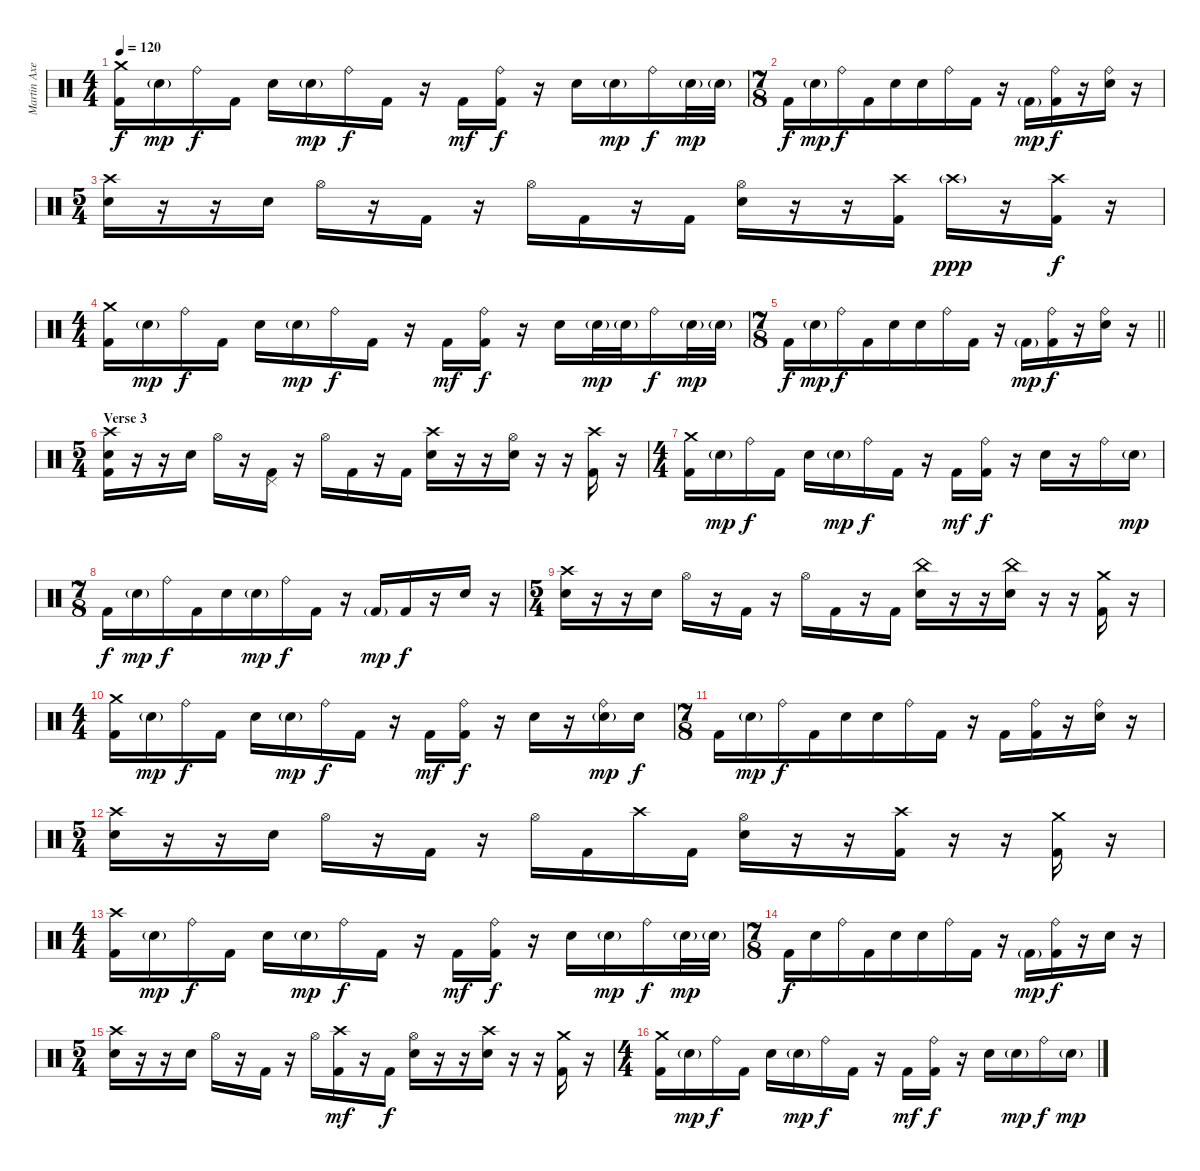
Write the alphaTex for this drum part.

\track ("Martin Axenrot - Drums" "Martin Axe") {instrument percussion}
\staff {score}
\articulation defaults
\ts (4 4)
\tempo 120
\clef neutral
\ks c
("Crash medium (hit)" "Kick (hit) 2").16{dy f} "Snare (hit) 2"{g}.16{dy mp} "Ride (bell)".16{dy f} "Kick (hit) 2".16 "Snare (hit) 2".16 "Snare (hit) 2"{g}.16{dy mp} "Ride (bell)".16{dy f} "Kick (hit) 2".16 r.16 "Kick (hit) 2".16{dy mf} ("Ride (bell)" "Kick (hit) 2").16{dy f} r.16 "Snare (hit) 2".16 "Snare (hit) 2"{g}.16{dy mp} "Ride (bell)".16{dy f} "Snare (hit) 2"{g}.32{dy mp} "Snare (hit) 2"{g}.32 |
\ts (7 8)
"Kick (hit) 2".16{dy f} "Snare (hit) 2"{g}.16{dy mp} "Ride (bell)".16{dy f} "Kick (hit) 2".16 "Snare (hit) 2".16 "Snare (hit) 2".16 "Ride (bell)".16 "Kick (hit) 2".16 r.16 "Kick (hit) 2"{g}.16{dy mp} ("Ride (bell)" "Kick (hit) 2").16{dy f} r.16 ("Ride (bell)" "Snare (hit) 2").16 r.16 |
\ts (5 4)
("Crash high (hit)" "Snare (hit) 2").16 r.16 r.16 "Snare (hit) 2".16 "Hi-Hat (open)".16 r.16 "Kick (hit) 2".16 r.16 "Hi-Hat (open)".16 "Kick (hit) 2".16 r.16 "Kick (hit) 2".16 ("Hi-Hat (open)" "Snare (hit) 2").16 r.16 r.16 ("Crash high (hit)" "Kick (hit) 2").16 "Crash high (hit)"{g}.16{dy ppp} r.16 ("Crash high (hit)" "Kick (hit) 2").16{dy f} r.16 |
\ts (4 4)
("Crash medium (hit)" "Kick (hit) 2").16 "Snare (hit) 2"{g}.16{dy mp} "Ride (bell)".16{dy f} "Kick (hit) 2".16 "Snare (hit) 2".16 "Snare (hit) 2"{g}.16{dy mp} "Ride (bell)".16{dy f} "Kick (hit) 2".16 r.16 "Kick (hit) 2".16{dy mf} ("Ride (bell)" "Kick (hit) 2").16{dy f} r.16 "Snare (hit) 2".16 "Snare (hit) 2"{g}.32{dy mp} "Snare (hit) 2"{g}.32 "Ride (bell)".16{dy f} "Snare (hit) 2"{g}.32{dy mp} "Snare (hit) 2"{g}.32 |
\ts (7 8)
\barLineRight lightlight "Kick (hit) 2".16{dy f} "Snare (hit) 2"{g}.16{dy mp} "Ride (bell)".16{dy f} "Kick (hit) 2".16 "Snare (hit) 2".16 "Snare (hit) 2".16 "Ride (bell)".16 "Kick (hit) 2".16
r.16 "Kick (hit) 2"{g}.16{dy mp} ("Ride (bell)" "Kick (hit) 2").16{dy f} r.16 ("Ride (bell)" "Snare (hit) 2").16 r.16 |
\ts (5 4)
\section ("" "Verse 3")
("Crash high (hit)" "Snare (hit) 2" "Kick (hit) 2").16 r.16 r.16 "Snare (hit) 2".16 "Hi-Hat (open)".16 r.16 ("Pedal Hi-Hat (hit)" "Kick (hit) 2").16 r.16 "Hi-Hat (open)".16 "Kick (hit) 2".16 r.16 "Kick (hit) 2".16 ("Crash high (hit)" "Snare (hit) 2").16 r.16 r.16 ("Hi-Hat (open)" "Snare (hit) 2").16 r.16 r.16 ("Crash high (hit)" "Kick (hit) 2").16 r.16 |
\ts (4 4)
("Crash medium (hit)" "Kick (hit) 2").16 "Snare (hit) 2"{g}.16{dy mp} "Ride (bell)".16{dy f} "Kick (hit) 2".16 "Snare (hit) 2".16 "Snare (hit) 2"{g}.16{dy mp} "Ride (bell)".16{dy f} "Kick (hit) 2".16 r.16 "Kick (hit) 2".16{dy mf} ("Ride (bell)" "Kick (hit) 2").16{dy f} r.16 "Snare (hit) 2".16 r.16 "Ride (bell)".16 "Snare (hit) 2"{g}.16{dy mp} |
\ts (7 8)
"Kick (hit) 2".16{dy f} "Snare (hit) 2"{g}.16{dy mp} "Ride (bell)".16{dy f} "Kick (hit) 2".16 "Snare (hit) 2".16 "Snare (hit) 2"{g}.16{dy mp} "Ride (bell)".16{dy f} "Kick (hit) 2".16 r.16 "Kick (hit) 2"{g}.16{dy mp} "Kick (hit) 2".16{dy f} r.16 "Snare (hit) 2".16 r.16 |
\ts (5 4)
("Crash high (hit)" "Snare (hit) 2").16 r.16 r.16 "Snare (hit) 2".16 "Hi-Hat (open)".16 r.16 "Kick (hit) 2".16 r.16 "Hi-Hat (open)".16 "Kick (hit) 2".16 r.16 "Kick (hit) 2".16 ("China (hit)" "Snare (hit) 2").16 r.16 r.16 ("China (hit)" "Snare (hit) 2").16 r.16 r.16 ("Crash medium (hit)" "Kick (hit) 2").16 r.16 |
\ts (4 4)
("Crash medium (hit)" "Kick (hit) 2").16 "Snare (hit) 2"{g}.16{dy mp} "Ride (bell)".16{dy f} "Kick (hit) 2".16 "Snare (hit) 2".16 "Snare (hit) 2"{g}.16{dy mp} "Ride (bell)".16{dy f} "Kick (hit) 2".16 r.16 "Kick (hit) 2".16{dy mf} ("Ride (bell)" "Kick (hit) 2").16{dy f} r.16 "Snare (hit) 2".16 r.16 ("Ride (bell)" "Snare (hit) 2"{g}).16{dy mp} "Snare (hit) 2".16{dy f} |
\ts (7 8)
"Kick (hit) 2".16 "Snare (hit) 2"{g}.16{dy mp} "Ride (bell)".16{dy f} "Kick (hit) 2".16 "Snare (hit) 2".16 "Snare (hit) 2".16 "Ride (bell)".16 "Kick (hit) 2".16 r.16 "Kick (hit) 2".16 ("Ride (bell)" "Kick (hit) 2").16 r.16 ("Ride (bell)" "Snare (hit) 2").16 r.16 |
\ts (5 4)
("Crash high (hit)" "Snare (hit) 2").16 r.16 r.16 "Snare (hit) 2".16 "Hi-Hat (open)".16 r.16 "Kick (hit) 2".16 r.16 "Hi-Hat (open)".16 "Kick (hit) 2".16 "Crash high (hit)".16 "Kick (hit) 2".16 ("Hi-Hat (open)" "Snare (hit) 2").16 r.16 r.16 ("Crash high (hit)" "Kick (hit) 2").16 r.16 r.16 ("Crash medium (hit)" "Kick (hit) 2").16 r.16 |
\ts (4 4)
("Crash high (hit)" "Kick (hit) 2").16 "Snare (hit) 2"{g}.16{dy mp} "Ride (bell)".16{dy f} "Kick (hit) 2".16 "Snare (hit) 2".16 "Snare (hit) 2"{g}.16{dy mp} "Ride (bell)".16{dy f} "Kick (hit) 2".16 r.16 "Kick (hit) 2".16{dy mf} ("Ride (bell)" "Kick (hit) 2").16{dy f} r.16 "Snare (hit) 2".16 "Snare (hit) 2"{g}.16{dy mp} "Ride (bell)".16{dy f} "Snare (hit) 2"{g}.32{dy mp} "Snare (hit) 2"{g}.32 |
\ts (7 8)
"Kick (hit) 2".16{dy f} "Snare (hit) 2".16 "Ride (bell)".16 "Kick (hit) 2".16 "Snare (hit) 2".16 "Snare (hit) 2".16 "Ride (bell)".16 "Kick (hit) 2".16 r.16 "Kick (hit) 2"{g}.16{dy mp} ("Ride (bell)" "Kick (hit) 2").16{dy f} r.16 "Snare (hit) 2".16 r.16 |
\ts (5 4)
("Crash high (hit)" "Snare (hit) 2").16 r.16 r.16 "Snare (hit) 2".16 "Hi-Hat (open)".16 r.16 "Kick (hit) 2".16 r.16 "Hi-Hat (open)".16 ("Crash high (hit)" "Kick (hit) 2").16{dy mf} r.16 "Kick (hit) 2".16{dy f} ("Hi-Hat (open)" "Snare (hit) 2").16 r.16 r.16 ("Crash high (hit)" "Snare (hit) 2").16 r.16 r.16 ("Crash medium (hit)" "Kick (hit) 2").16 r.16 |
\ts (4 4)
("Crash medium (hit)" "Kick (hit) 2").16 "Snare (hit) 2"{g}.16{dy mp} "Ride (bell)".16{dy f} "Kick (hit) 2".16 "Snare (hit) 2".16 "Snare (hit) 2"{g}.16{dy mp} "Ride (bell)".16{dy f} "Kick (hit) 2".16 r.16 "Kick (hit) 2".16{dy mf} ("Ride (bell)" "Kick (hit) 2").16{dy f} r.16 "Snare (hit) 2".16 "Snare (hit) 2"{g}.16{dy mp} "Ride (bell)".16{dy f} "Snare (hit) 2"{g}.16{dy mp}
